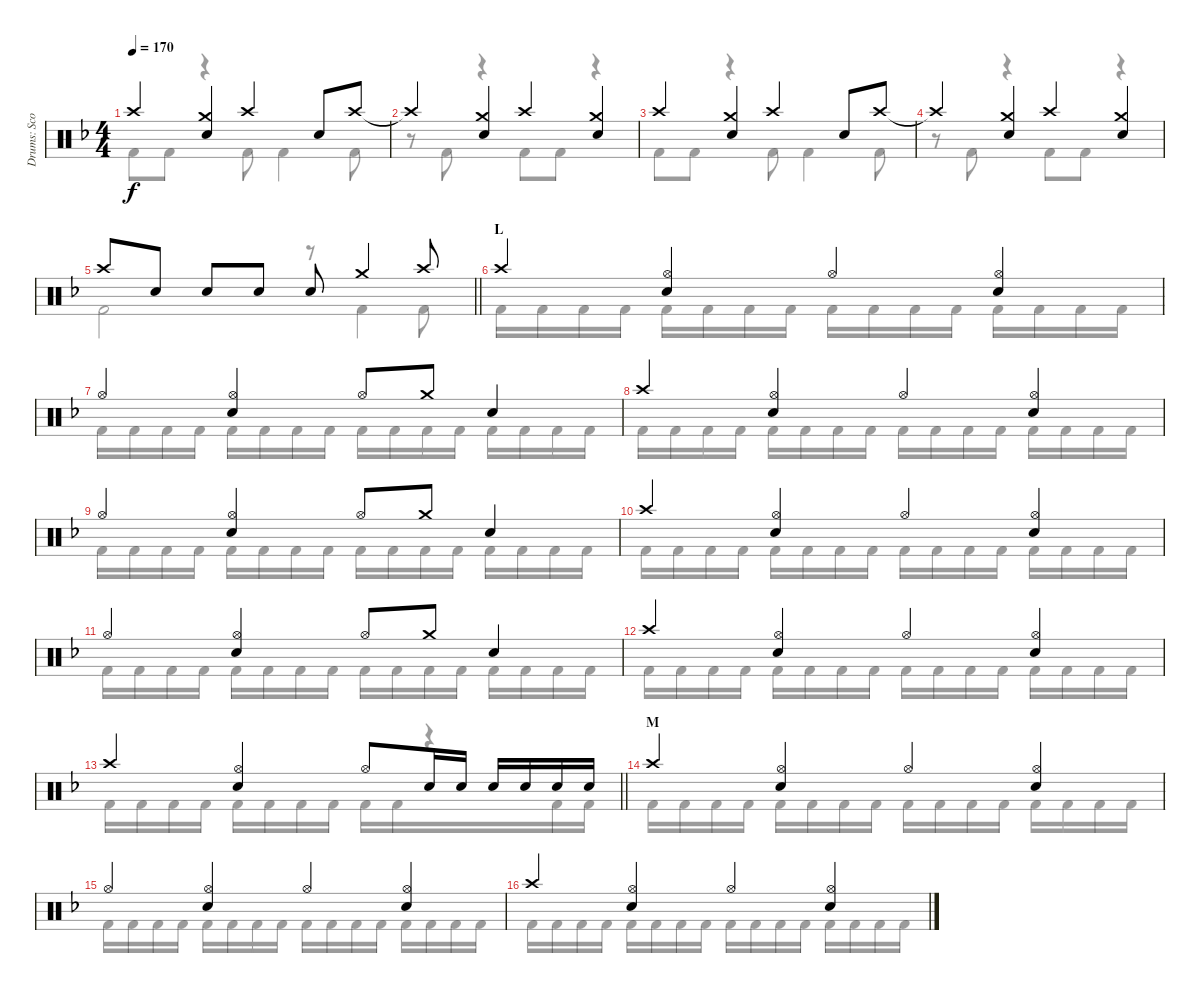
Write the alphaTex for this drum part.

\track ("Drums: Scott" "Drums: Sco") {instrument percussion}
\staff {score}
\articulation defaults
\voice
\ts (4 4)
\tempo 170
\clef neutral
\ks f "Crash high (hit)".4{dy f}
("Crash medium (hit)" "Snare (hit) 2").4 "Crash high (hit)".4 "Snare (hit) 2".8 "Crash high (hit)".8 |
"Crash high (hit)"{t}.4 ("Crash medium (hit)" "Snare (hit) 2").4 "Crash high (hit)".4 ("Crash medium (hit)" "Snare (hit) 2").4 |
"Crash high (hit)".4 ("Crash medium (hit)" "Snare (hit) 2").4 "Crash high (hit)".4 "Snare (hit) 2".8 "Crash high (hit)".8 |
"Crash high (hit)"{t}.4 ("Crash medium (hit)" "Snare (hit) 2").4 "Crash high (hit)".4 ("Crash medium (hit)" "Snare (hit) 2").4 |
\barLineRight lightlight "Crash high (hit)".8 "Snare (hit) 2".8 "Snare (hit) 2".8 "Snare (hit) 2".8 "Snare (hit) 2".8 "Crash medium (hit)".4 "Crash high (hit)".8
|
\section ("" "L")
"Crash high (hit)".4 ("Hi-Hat (open)" "Snare (hit) 2").4 "Hi-Hat (open)".4 ("Hi-Hat (open)" "Snare (hit) 2").4 |
"Hi-Hat (open)".4 ("Hi-Hat (open)" "Snare (hit) 2").4 "Hi-Hat (open)".8 "Crash medium (hit)".8 "Snare (hit) 2".4 |
"Crash high (hit)".4 ("Hi-Hat (open)" "Snare (hit) 2").4 "Hi-Hat (open)".4 ("Hi-Hat (open)" "Snare (hit) 2").4 |
"Hi-Hat (open)".4 ("Hi-Hat (open)" "Snare (hit) 2").4 "Hi-Hat (open)".8 "Crash medium (hit)".8 "Snare (hit) 2".4 |
"Crash high (hit)".4 ("Hi-Hat (open)" "Snare (hit) 2").4 "Hi-Hat (open)".4 ("Hi-Hat (open)" "Snare (hit) 2").4 |
"Hi-Hat (open)".4 ("Hi-Hat (open)" "Snare (hit) 2").4 "Hi-Hat (open)".8 "Crash medium (hit)".8 "Snare (hit) 2".4 |
"Crash high (hit)".4 ("Hi-Hat (open)" "Snare (hit) 2").4 "Hi-Hat (open)".4 ("Hi-Hat (open)" "Snare (hit) 2").4 |
\barLineRight lightlight "Crash high (hit)".4
("Hi-Hat (open)" "Snare (hit) 2").4 "Hi-Hat (open)".8 "Snare (hit) 2".16 "Hand Clap (hit)".16 "Snare (hit) 2".16 "Hand Clap (hit)".16 "Snare (hit) 2".16 "Hand Clap (hit)".16 |
\section ("" "M")
"Crash high (hit)".4 ("Hi-Hat (open)" "Snare (hit) 2").4 "Hi-Hat (open)".4 ("Hi-Hat (open)" "Snare (hit) 2").4 |
"Hi-Hat (open)".4 ("Hi-Hat (open)" "Snare (hit) 2").4 "Hi-Hat (open)".4 ("Hi-Hat (open)" "Snare (hit) 2").4 |
"Crash high (hit)".4 ("Hi-Hat (open)" "Snare (hit) 2").4 "Hi-Hat (open)".4 ("Hi-Hat (open)" "Snare (hit) 2").4
\voice
\clef neutral
\ottava regular
\simile none
\ks f "Kick (hit) 2".8{dy f} "Kick (hit) 2".8
r.4 "Kick (hit) 2".8 "Kick (hit) 2".4 "Kick (hit) 2".8 |
r.8 "Kick (hit) 2".8 r.4 "Kick (hit) 2".8 "Kick (hit) 2".8 r.4 |
"Kick (hit) 2".8 "Kick (hit) 2".8 r.4 "Kick (hit) 2".8 "Kick (hit) 2".4 "Kick (hit) 2".8 |
r.8 "Kick (hit) 2".8 r.4 "Kick (hit) 2".8 "Kick (hit) 2".8 r.4 |
\barLineRight lightlight "Kick (hit) 2".2
r.8 "Kick (hit) 2".4 "Kick (hit) 2".8 |
"Kick (hit) 2".16 "Kick (hit) 2".16{beam merge} "Kick (hit) 2".16 "Kick (hit) 2".16 "Kick (hit) 2".16 "Kick (hit) 2".16{beam merge} "Kick (hit) 2".16 "Kick (hit) 2".16 "Kick (hit) 2".16 "Kick (hit) 2".16{beam merge} "Kick (hit) 2".16 "Kick (hit) 2".16 "Kick (hit) 2".16 "Kick (hit) 2".16{beam merge} "Kick (hit) 2".16 "Kick (hit) 2".16 |
"Kick (hit) 2".16 "Kick (hit) 2".16{beam merge} "Kick (hit) 2".16 "Kick (hit) 2".16 "Kick (hit) 2".16 "Kick (hit) 2".16{beam merge} "Kick (hit) 2".16 "Kick (hit) 2".16 "Kick (hit) 2".16 "Kick (hit) 2".16{beam merge} "Kick (hit) 2".16 "Kick (hit) 2".16 "Kick (hit) 2".16 "Kick (hit) 2".16{beam merge} "Kick (hit) 2".16 "Kick (hit) 2".16 |
"Kick (hit) 2".16 "Kick (hit) 2".16{beam merge} "Kick (hit) 2".16 "Kick (hit) 2".16 "Kick (hit) 2".16 "Kick (hit) 2".16{beam merge} "Kick (hit) 2".16 "Kick (hit) 2".16 "Kick (hit) 2".16 "Kick (hit) 2".16{beam merge} "Kick (hit) 2".16 "Kick (hit) 2".16 "Kick (hit) 2".16 "Kick (hit) 2".16{beam merge} "Kick (hit) 2".16 "Kick (hit) 2".16 |
"Kick (hit) 2".16 "Kick (hit) 2".16{beam merge} "Kick (hit) 2".16 "Kick (hit) 2".16 "Kick (hit) 2".16 "Kick (hit) 2".16{beam merge} "Kick (hit) 2".16 "Kick (hit) 2".16 "Kick (hit) 2".16 "Kick (hit) 2".16{beam merge} "Kick (hit) 2".16 "Kick (hit) 2".16 "Kick (hit) 2".16 "Kick (hit) 2".16{beam merge} "Kick (hit) 2".16 "Kick (hit) 2".16 |
"Kick (hit) 2".16 "Kick (hit) 2".16{beam merge} "Kick (hit) 2".16 "Kick (hit) 2".16 "Kick (hit) 2".16 "Kick (hit) 2".16{beam merge} "Kick (hit) 2".16 "Kick (hit) 2".16 "Kick (hit) 2".16 "Kick (hit) 2".16{beam merge} "Kick (hit) 2".16 "Kick (hit) 2".16 "Kick (hit) 2".16 "Kick (hit) 2".16{beam merge} "Kick (hit) 2".16 "Kick (hit) 2".16 |
"Kick (hit) 2".16 "Kick (hit) 2".16{beam merge} "Kick (hit) 2".16 "Kick (hit) 2".16 "Kick (hit) 2".16 "Kick (hit) 2".16{beam merge} "Kick (hit) 2".16 "Kick (hit) 2".16 "Kick (hit) 2".16 "Kick (hit) 2".16{beam merge} "Kick (hit) 2".16 "Kick (hit) 2".16 "Kick (hit) 2".16 "Kick (hit) 2".16{beam merge} "Kick (hit) 2".16 "Kick (hit) 2".16 |
"Kick (hit) 2".16 "Kick (hit) 2".16{beam merge} "Kick (hit) 2".16 "Kick (hit) 2".16 "Kick (hit) 2".16 "Kick (hit) 2".16{beam merge} "Kick (hit) 2".16 "Kick (hit) 2".16 "Kick (hit) 2".16 "Kick (hit) 2".16{beam merge} "Kick (hit) 2".16 "Kick (hit) 2".16 "Kick (hit) 2".16 "Kick (hit) 2".16{beam merge} "Kick (hit) 2".16 "Kick (hit) 2".16 |
\barLineRight lightlight "Kick (hit) 2".16 "Kick (hit) 2".16{beam merge} "Kick (hit) 2".16 "Kick (hit) 2".16 "Kick (hit) 2".16 "Kick (hit) 2".16{beam merge} "Kick (hit) 2".16 "Kick (hit) 2".16 "Kick (hit) 2".16 "Kick (hit) 2".16{beam merge}
r.4{beam merge} "Kick (hit) 2".16 "Kick (hit) 2".16 |
"Kick (hit) 2".16 "Kick (hit) 2".16{beam merge} "Kick (hit) 2".16 "Kick (hit) 2".16 "Kick (hit) 2".16 "Kick (hit) 2".16{beam merge} "Kick (hit) 2".16 "Kick (hit) 2".16 "Kick (hit) 2".16 "Kick (hit) 2".16{beam merge} "Kick (hit) 2".16 "Kick (hit) 2".16 "Kick (hit) 2".16 "Kick (hit) 2".16{beam merge} "Kick (hit) 2".16 "Kick (hit) 2".16 |
"Kick (hit) 2".16 "Kick (hit) 2".16{beam merge} "Kick (hit) 2".16 "Kick (hit) 2".16 "Kick (hit) 2".16 "Kick (hit) 2".16{beam merge} "Kick (hit) 2".16 "Kick (hit) 2".16 "Kick (hit) 2".16 "Kick (hit) 2".16{beam merge} "Kick (hit) 2".16 "Kick (hit) 2".16 "Kick (hit) 2".16 "Kick (hit) 2".16{beam merge} "Kick (hit) 2".16 "Kick (hit) 2".16 |
"Kick (hit) 2".16 "Kick (hit) 2".16{beam merge} "Kick (hit) 2".16 "Kick (hit) 2".16 "Kick (hit) 2".16 "Kick (hit) 2".16{beam merge} "Kick (hit) 2".16 "Kick (hit) 2".16 "Kick (hit) 2".16 "Kick (hit) 2".16{beam merge} "Kick (hit) 2".16 "Kick (hit) 2".16 "Kick (hit) 2".16 "Kick (hit) 2".16{beam merge} "Kick (hit) 2".16 "Kick (hit) 2".16
